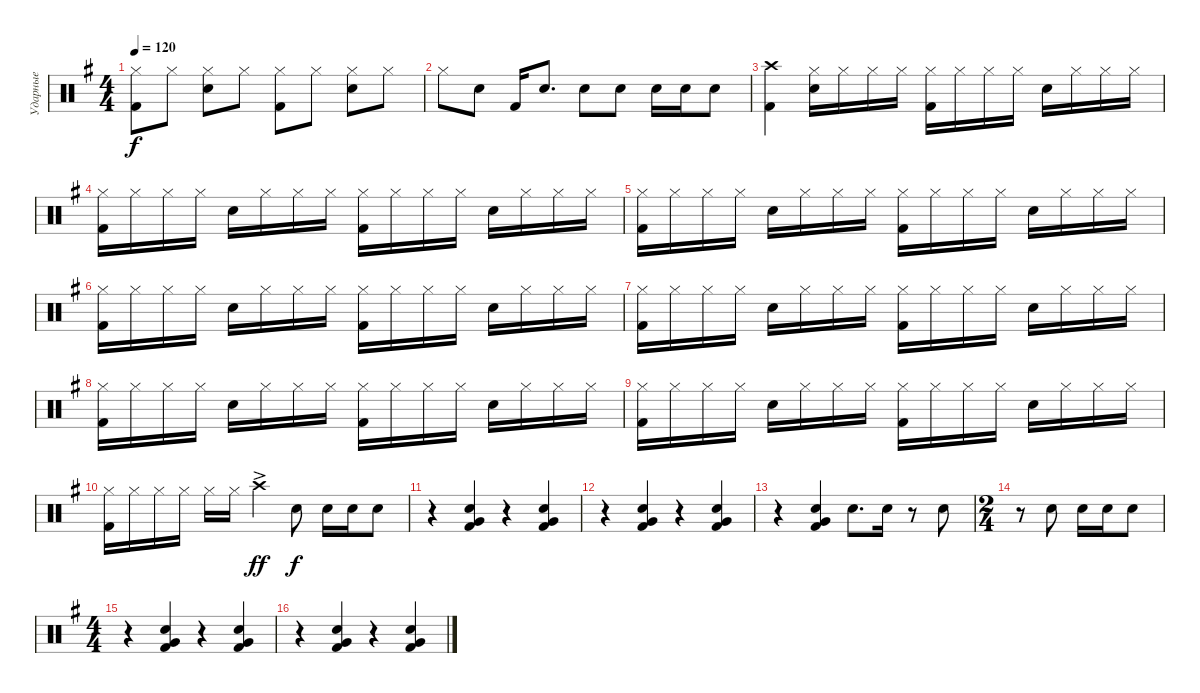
\track ("Ударные" "Ударные") {instrument percussion}
\staff {score}
\articulation defaults
\ts (4 4)
\tempo 120
\clef neutral
\ks g
("Hi-Hat (closed)" "Kick (hit) 2").8{dy f} "Hi-Hat (closed)".8 ("Hi-Hat (closed)" "Snare (hit) 2").8 "Hi-Hat (closed)".8 ("Hi-Hat (closed)" "Kick (hit) 2").8 "Hi-Hat (closed)".8 ("Hi-Hat (closed)" "Snare (hit) 2").8 "Hi-Hat (closed)".8 |
"Hi-Hat (closed)".8 "Snare (hit) 2".8 "Kick (hit) 2".16 "Snare (hit) 2".8{d} "Snare (hit) 2".8 "Snare (hit) 2".8 "Snare (hit) 2".16 "Snare (hit) 2".16 "Snare (hit) 2".8 |
("Crash high (hit)" "Kick (hit) 2").4 ("Hi-Hat (closed)" "Snare (hit) 2").16 "Hi-Hat (closed)".16 "Hi-Hat (closed)".16 "Hi-Hat (closed)".16 ("Hi-Hat (closed)" "Kick (hit) 2").16 "Hi-Hat (closed)".16 "Hi-Hat (closed)".16 "Hi-Hat (closed)".16 "Snare (hit) 2".16 "Hi-Hat (closed)".16 "Hi-Hat (closed)".16 "Hi-Hat (closed)".16 |
("Hi-Hat (closed)" "Kick (hit) 2").16 "Hi-Hat (closed)".16 "Hi-Hat (closed)".16 "Hi-Hat (closed)".16 "Snare (hit) 2".16 "Hi-Hat (closed)".16 "Hi-Hat (closed)".16 "Hi-Hat (closed)".16 ("Hi-Hat (closed)" "Kick (hit) 2").16 "Hi-Hat (closed)".16 "Hi-Hat (closed)".16 "Hi-Hat (closed)".16 "Snare (hit) 2".16 "Hi-Hat (closed)".16 "Hi-Hat (closed)".16 "Hi-Hat (closed)".16 |
("Hi-Hat (closed)" "Kick (hit) 2").16 "Hi-Hat (closed)".16 "Hi-Hat (closed)".16 "Hi-Hat (closed)".16 "Snare (hit) 2".16 "Hi-Hat (closed)".16 "Hi-Hat (closed)".16 "Hi-Hat (closed)".16 ("Hi-Hat (closed)" "Kick (hit) 2").16 "Hi-Hat (closed)".16 "Hi-Hat (closed)".16 "Hi-Hat (closed)".16 "Snare (hit) 2".16 "Hi-Hat (closed)".16 "Hi-Hat (closed)".16 "Hi-Hat (closed)".16 |
("Hi-Hat (closed)" "Kick (hit) 2").16 "Hi-Hat (closed)".16 "Hi-Hat (closed)".16 "Hi-Hat (closed)".16 "Snare (hit) 2".16 "Hi-Hat (closed)".16 "Hi-Hat (closed)".16 "Hi-Hat (closed)".16 ("Hi-Hat (closed)" "Kick (hit) 2").16 "Hi-Hat (closed)".16 "Hi-Hat (closed)".16 "Hi-Hat (closed)".16 "Snare (hit) 2".16 "Hi-Hat (closed)".16 "Hi-Hat (closed)".16 "Hi-Hat (closed)".16 |
("Hi-Hat (closed)" "Kick (hit) 2").16 "Hi-Hat (closed)".16 "Hi-Hat (closed)".16 "Hi-Hat (closed)".16 "Snare (hit) 2".16 "Hi-Hat (closed)".16 "Hi-Hat (closed)".16 "Hi-Hat (closed)".16 ("Hi-Hat (closed)" "Kick (hit) 2").16 "Hi-Hat (closed)".16 "Hi-Hat (closed)".16 "Hi-Hat (closed)".16 "Snare (hit) 2".16 "Hi-Hat (closed)".16 "Hi-Hat (closed)".16 "Hi-Hat (closed)".16 |
("Hi-Hat (closed)" "Kick (hit) 2").16 "Hi-Hat (closed)".16 "Hi-Hat (closed)".16 "Hi-Hat (closed)".16 "Snare (hit) 2".16 "Hi-Hat (closed)".16 "Hi-Hat (closed)".16 "Hi-Hat (closed)".16 ("Hi-Hat (closed)" "Kick (hit) 2").16 "Hi-Hat (closed)".16 "Hi-Hat (closed)".16 "Hi-Hat (closed)".16 "Snare (hit) 2".16 "Hi-Hat (closed)".16 "Hi-Hat (closed)".16 "Hi-Hat (closed)".16 |
("Hi-Hat (closed)" "Kick (hit) 2").16 "Hi-Hat (closed)".16 "Hi-Hat (closed)".16 "Hi-Hat (closed)".16 "Snare (hit) 2".16 "Hi-Hat (closed)".16 "Hi-Hat (closed)".16 "Hi-Hat (closed)".16 ("Hi-Hat (closed)" "Kick (hit) 2").16 "Hi-Hat (closed)".16 "Hi-Hat (closed)".16 "Hi-Hat (closed)".16 "Snare (hit) 2".16 "Hi-Hat (closed)".16 "Hi-Hat (closed)".16 "Hi-Hat (closed)".16 |
("Hi-Hat (closed)" "Kick (hit) 2").16 "Hi-Hat (closed)".16 "Hi-Hat (closed)".16 "Hi-Hat (closed)".16 "Hi-Hat (closed)".16 "Hi-Hat (closed)".16 "Crash high (hit)"{ac}.4{dy ff} "Snare (hit) 2".8{dy f} "Snare (hit) 2".16 "Snare (hit) 2".16 "Snare (hit) 2".8 |
r.4 ("Snare (hit) 2" "Very Low Tom (hit)" "Kick (hit) 2").4 r.4 ("Snare (hit) 2" "Very Low Tom (hit)" "Kick (hit) 2").4 |
r.4 ("Snare (hit) 2" "Very Low Tom (hit)" "Kick (hit) 2").4 r.4 ("Snare (hit) 2" "Very Low Tom (hit)" "Kick (hit) 2").4 |
r.4 ("Snare (hit) 2" "Very Low Tom (hit)" "Kick (hit) 2").4 "Snare (hit) 2".8{d} "Snare (hit) 2".16 r.8 "Snare (hit) 2".8 |
\ts (2 4)
r.8 "Snare (hit) 2".8 "Snare (hit) 2".16 "Snare (hit) 2".16 "Snare (hit) 2".8 |
\ts (4 4)
r.4 ("Snare (hit) 2" "Very Low Tom (hit)" "Kick (hit) 2").4 r.4 ("Snare (hit) 2" "Very Low Tom (hit)" "Kick (hit) 2").4 |
r.4 ("Snare (hit) 2" "Very Low Tom (hit)" "Kick (hit) 2").4 r.4 ("Snare (hit) 2" "Very Low Tom (hit)" "Kick (hit) 2").4
